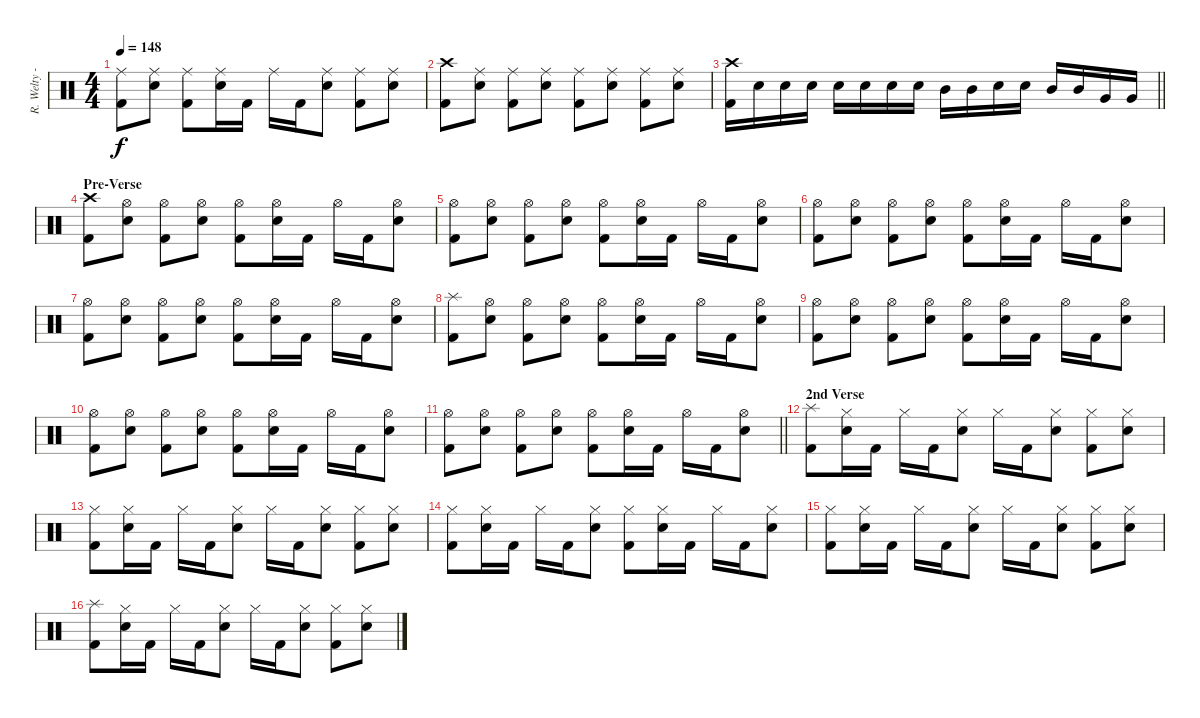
\track ("R. Welty - Drums" "R. Welty -") {instrument percussion}
\staff {score}
\articulation defaults
\ts (4 4)
\tempo 148
\clef neutral
\ks c
("Ride (middle)" "Kick (hit) 2").8{dy f} ("Ride (middle)" "Snare (hit) 2").8 ("Ride (middle)" "Kick (hit) 2").8 ("Ride (middle)" "Snare (hit) 2").16 "Kick (hit) 2".16 "Ride (middle)".16 "Kick (hit) 2".16 ("Ride (middle)" "Snare (hit) 2").8 ("Ride (middle)" "Kick (hit) 2").8 ("Ride (middle)" "Snare (hit) 2").8 |
("Crash high (hit)" "Kick (hit) 2").8 ("Ride (middle)" "Snare (hit) 2").8 ("Ride (middle)" "Kick (hit) 2").8 ("Ride (middle)" "Snare (hit) 2").8 ("Ride (middle)" "Kick (hit) 2").8 ("Ride (middle)" "Snare (hit) 2").8 ("Ride (middle)" "Kick (hit) 2").8 ("Ride (middle)" "Snare (hit) 2").8 |
\barLineRight lightlight
("Crash high (hit)" "Kick (hit) 2").16 "Snare (hit) 2".16 "Snare (hit) 2".16 "Snare (hit) 2".16 "Snare (hit) 2".16 "Snare (hit) 2".16 "Snare (hit) 2".16 "Snare (hit) 2".16 "Mid Tom (hit)".16 "Mid Tom (hit)".16 "Snare (hit) 2".16 "Snare (hit) 2".16 "Mid Tom (hit)".16 "Mid Tom (hit)".16 "Very Low Tom (hit)".16 "Very Low Tom (hit)".16 |
\section ("" "Pre-Verse")
("Crash high (hit)" "Kick (hit) 2").8 ("Hi-Hat (open)" "Snare (hit) 2").8 ("Hi-Hat (open)" "Kick (hit) 2").8 ("Hi-Hat (open)" "Snare (hit) 2").8 ("Hi-Hat (open)" "Kick (hit) 2").8 ("Hi-Hat (open)" "Snare (hit) 2").16 "Kick (hit) 2".16 "Hi-Hat (open)".16 "Kick (hit) 2".16 ("Hi-Hat (open)" "Snare (hit) 2").8 |
("Hi-Hat (open)" "Kick (hit) 2").8 ("Hi-Hat (open)" "Snare (hit) 2").8 ("Hi-Hat (open)" "Kick (hit) 2").8 ("Hi-Hat (open)" "Snare (hit) 2").8 ("Hi-Hat (open)" "Kick (hit) 2").8 ("Hi-Hat (open)" "Snare (hit) 2").16 "Kick (hit) 2".16 "Hi-Hat (open)".16 "Kick (hit) 2".16 ("Hi-Hat (open)" "Snare (hit) 2").8 |
("Hi-Hat (open)" "Kick (hit) 2").8 ("Hi-Hat (open)" "Snare (hit) 2").8 ("Hi-Hat (open)" "Kick (hit) 2").8 ("Hi-Hat (open)" "Snare (hit) 2").8 ("Hi-Hat (open)" "Kick (hit) 2").8 ("Hi-Hat (open)" "Snare (hit) 2").16 "Kick (hit) 2".16 "Hi-Hat (open)".16 "Kick (hit) 2".16 ("Hi-Hat (open)" "Snare (hit) 2").8 |
("Hi-Hat (open)" "Kick (hit) 2").8 ("Hi-Hat (open)" "Snare (hit) 2").8 ("Hi-Hat (open)" "Kick (hit) 2").8 ("Hi-Hat (open)" "Snare (hit) 2").8 ("Hi-Hat (open)" "Kick (hit) 2").8 ("Hi-Hat (open)" "Snare (hit) 2").16 "Kick (hit) 2".16 "Hi-Hat (open)".16 "Kick (hit) 2".16 ("Hi-Hat (open)" "Snare (hit) 2").8 |
("Splash (hit)" "Kick (hit) 2").8 ("Hi-Hat (open)" "Snare (hit) 2").8 ("Hi-Hat (open)" "Kick (hit) 2").8 ("Hi-Hat (open)" "Snare (hit) 2").8 ("Hi-Hat (open)" "Kick (hit) 2").8 ("Hi-Hat (open)" "Snare (hit) 2").16 "Kick (hit) 2".16 "Hi-Hat (open)".16 "Kick (hit) 2".16 ("Hi-Hat (open)" "Snare (hit) 2").8 |
("Hi-Hat (open)" "Kick (hit) 2").8 ("Hi-Hat (open)" "Snare (hit) 2").8 ("Hi-Hat (open)" "Kick (hit) 2").8 ("Hi-Hat (open)" "Snare (hit) 2").8 ("Hi-Hat (open)" "Kick (hit) 2").8 ("Hi-Hat (open)" "Snare (hit) 2").16 "Kick (hit) 2".16 "Hi-Hat (open)".16 "Kick (hit) 2".16 ("Hi-Hat (open)" "Snare (hit) 2").8 |
("Hi-Hat (open)" "Kick (hit) 2").8 ("Hi-Hat (open)" "Snare (hit) 2").8 ("Hi-Hat (open)" "Kick (hit) 2").8 ("Hi-Hat (open)" "Snare (hit) 2").8 ("Hi-Hat (open)" "Kick (hit) 2").8 ("Hi-Hat (open)" "Snare (hit) 2").16 "Kick (hit) 2".16 "Hi-Hat (open)".16 "Kick (hit) 2".16 ("Hi-Hat (open)" "Snare (hit) 2").8 |
\barLineRight lightlight
("Hi-Hat (open)" "Kick (hit) 2").8 ("Hi-Hat (open)" "Snare (hit) 2").8 ("Hi-Hat (open)" "Kick (hit) 2").8 ("Hi-Hat (open)" "Snare (hit) 2").8 ("Hi-Hat (open)" "Kick (hit) 2").8 ("Hi-Hat (open)" "Snare (hit) 2").16 "Kick (hit) 2".16 "Hi-Hat (open)".16 "Kick (hit) 2".16 ("Hi-Hat (open)" "Snare (hit) 2").8 |
\section ("" "2nd Verse")
("Splash (hit)" "Kick (hit) 2").8 ("Hi-Hat (closed)" "Snare (hit) 2").16 "Kick (hit) 2".16 "Hi-Hat (closed)".16 "Kick (hit) 2".16 ("Hi-Hat (closed)" "Snare (hit) 2").8 "Hi-Hat (closed)".16 "Kick (hit) 2".16 ("Hi-Hat (closed)" "Snare (hit) 2").8 ("Hi-Hat (closed)" "Kick (hit) 2").8 ("Hi-Hat (closed)" "Snare (hit) 2").8 |
("Hi-Hat (closed)" "Kick (hit) 2").8 ("Hi-Hat (closed)" "Snare (hit) 2").16 "Kick (hit) 2".16 "Hi-Hat (closed)".16 "Kick (hit) 2".16 ("Hi-Hat (closed)" "Snare (hit) 2").8 "Hi-Hat (closed)".16 "Kick (hit) 2".16 ("Hi-Hat (closed)" "Snare (hit) 2").8 ("Hi-Hat (closed)" "Kick (hit) 2").8 ("Hi-Hat (closed)" "Snare (hit) 2").8 |
("Hi-Hat (closed)" "Kick (hit) 2").8 ("Hi-Hat (closed)" "Snare (hit) 2").16 "Kick (hit) 2".16 "Hi-Hat (closed)".16 "Kick (hit) 2".16 ("Hi-Hat (closed)" "Snare (hit) 2").8 ("Hi-Hat (closed)" "Kick (hit) 2").8 ("Hi-Hat (closed)" "Snare (hit) 2").16 "Kick (hit) 2".16 "Hi-Hat (closed)".16 "Kick (hit) 2".16 ("Hi-Hat (closed)" "Snare (hit) 2").8 |
("Hi-Hat (closed)" "Kick (hit) 2").8 ("Hi-Hat (closed)" "Snare (hit) 2").16 "Kick (hit) 2".16 "Hi-Hat (closed)".16 "Kick (hit) 2".16 ("Hi-Hat (closed)" "Snare (hit) 2").8 "Hi-Hat (closed)".16 "Kick (hit) 2".16 ("Hi-Hat (closed)" "Snare (hit) 2").8 ("Hi-Hat (closed)" "Kick (hit) 2").8 ("Hi-Hat (closed)" "Snare (hit) 2").8 |
("Splash (hit)" "Kick (hit) 2").8 ("Hi-Hat (closed)" "Snare (hit) 2").16 "Kick (hit) 2".16 "Hi-Hat (closed)".16 "Kick (hit) 2".16 ("Hi-Hat (closed)" "Snare (hit) 2").8 "Hi-Hat (closed)".16 "Kick (hit) 2".16 ("Hi-Hat (closed)" "Snare (hit) 2").8 ("Hi-Hat (closed)" "Kick (hit) 2").8 ("Hi-Hat (closed)" "Snare (hit) 2").8
